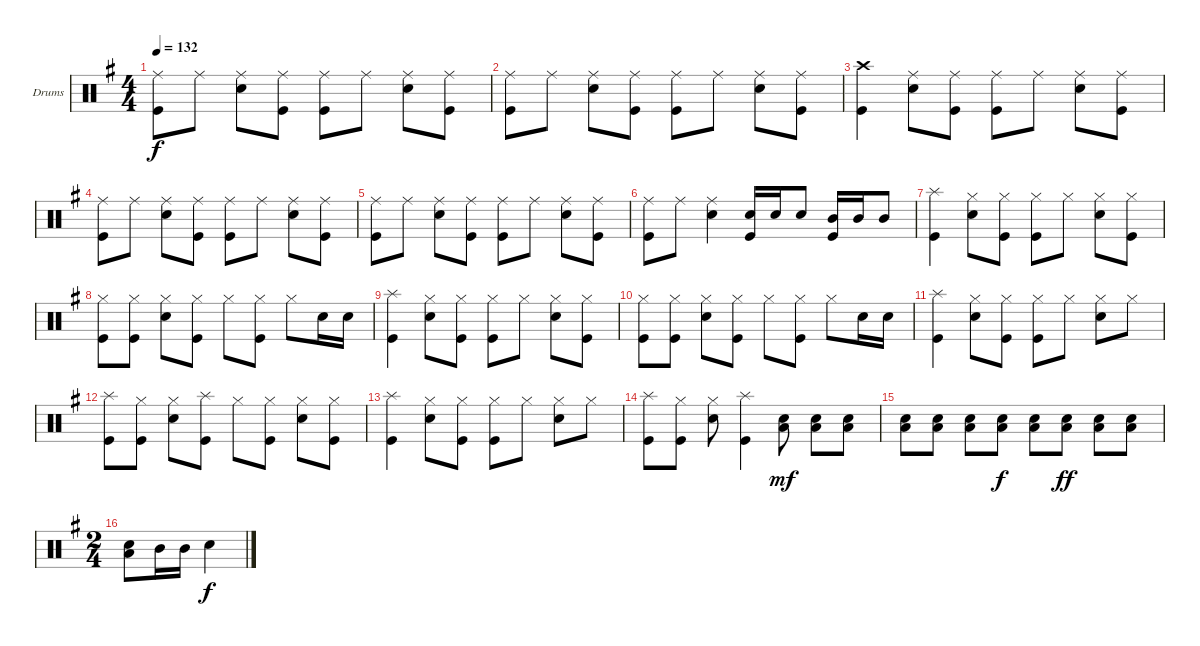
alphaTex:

\defaultSystemsLayout 4
\bracketExtendMode groupsimilarinstruments
\firstSystemTrackNameOrientation horizontal
\otherSystemsTrackNameOrientation horizontal
\track ("Drumkit" "Drums") {instrument percussion}
\staff {score}
\articulation defaults
\ts (4 4)
\tempo 132
\clef neutral
\scale
0.957125
\ks g
("Ride (middle)" "Kick (hit)").8{dy f} "Ride (middle)".8 ("Ride (middle)" "Snare (hit) 2").8 ("Ride (middle)" "Kick (hit)").8 ("Ride (middle)" "Kick (hit)").8 "Ride (middle)".8 ("Ride (middle)" "Snare (hit) 2").8 ("Ride (middle)" "Kick (hit)").8 |
\scale
0.957125 ("Ride (middle)" "Kick (hit)").8 "Ride (middle)".8 ("Ride (middle)" "Snare (hit) 2").8 ("Ride (middle)" "Kick (hit)").8 ("Ride (middle)" "Kick (hit)").8 "Ride (middle)".8 ("Ride (middle)" "Snare (hit) 2").8 ("Ride (middle)" "Kick (hit)").8 |
\scale
1.08575 ("Crash high (hit)" "Kick (hit)").4 ("Ride (middle)" "Snare (hit) 2").8 ("Ride (middle)" "Kick (hit)").8 ("Ride (middle)" "Kick (hit)").8 "Ride (middle)".8 ("Ride (middle)" "Snare (hit) 2").8 ("Ride (middle)" "Kick (hit)").8 |
\scale
0.957125 ("Ride (middle)" "Kick (hit)").8 "Ride (middle)".8 ("Ride (middle)" "Snare (hit) 2").8 ("Ride (middle)" "Kick (hit)").8 ("Ride (middle)" "Kick (hit)").8 "Ride (middle)".8 ("Ride (middle)" "Snare (hit) 2").8 ("Ride (middle)" "Kick (hit)").8 |
\scale
0.957125 ("Ride (middle)" "Kick (hit)").8 "Ride (middle)".8 ("Ride (middle)" "Snare (hit) 2").8 ("Ride (middle)" "Kick (hit)").8 ("Ride (middle)" "Kick (hit)").8 "Ride (middle)".8 ("Ride (middle)" "Snare (hit) 2").8 ("Ride (middle)" "Kick (hit)").8 |
\scale
1.08575 ("Ride (middle)" "Kick (hit)").8 "Ride (middle)".8 ("Ride (middle)" "Snare (hit) 2").4 ("Snare (hit) 2" "Kick (hit)").16 "Snare (hit) 2".16 "Snare (hit) 2".8 ("Mid Tom (hit)" "Kick (hit)").16 "Mid Tom (hit)".16 "Mid Tom (hit)".8 |
\scale
0.957125 ("Splash (hit)" "Kick (hit)").4 ("Hi-Hat (closed)" "Snare (hit) 2").8 ("Hi-Hat (closed)" "Kick (hit)").8 ("Hi-Hat (closed)" "Kick (hit)").8 "Hi-Hat (closed)".8 ("Hi-Hat (closed)" "Snare (hit) 2").8 ("Hi-Hat (closed)" "Kick (hit)").8 |
\scale
0.957125 ("Hi-Hat (closed)" "Kick (hit)").8 ("Hi-Hat (closed)" "Kick (hit)").8 ("Hi-Hat (closed)" "Snare (hit) 2").8 ("Hi-Hat (closed)" "Kick (hit)").8 "Hi-Hat (closed)".8 ("Hi-Hat (closed)" "Kick (hit)").8 "Hi-Hat (closed)".8 "Snare (hit) 2".16 "Snare (hit) 2".16 |
\scale
1.08575 ("Splash (hit)" "Kick (hit)").4 ("Hi-Hat (closed)" "Snare (hit) 2").8 ("Hi-Hat (closed)" "Kick (hit)").8 ("Hi-Hat (closed)" "Kick (hit)").8 "Hi-Hat (closed)".8 ("Hi-Hat (closed)" "Snare (hit) 2").8 ("Hi-Hat (closed)" "Kick (hit)").8 |
\scale
0.957125 ("Hi-Hat (closed)" "Kick (hit)").8 ("Hi-Hat (closed)" "Kick (hit)").8 ("Hi-Hat (closed)" "Snare (hit) 2").8 ("Hi-Hat (closed)" "Kick (hit)").8 "Hi-Hat (closed)".8 ("Hi-Hat (closed)" "Kick (hit)").8 "Hi-Hat (closed)".8 "Snare (hit) 2".16 "Snare (hit) 2".16 |
\scale
0.957125 ("Splash (hit)" "Kick (hit)").4 ("Hi-Hat (closed)" "Snare (hit) 2").8 ("Hi-Hat (closed)" "Kick (hit)").8 ("Hi-Hat (closed)" "Kick (hit)").8 "Hi-Hat (closed)".8 ("Hi-Hat (closed)" "Snare (hit) 2").8 "Hi-Hat (closed)".8 |
\scale
1.08575 ("Splash (hit)" "Kick (hit)").8 ("Hi-Hat (closed)" "Kick (hit)").8 ("Hi-Hat (closed)" "Snare (hit) 2").8 ("Splash (hit)" "Kick (hit)").8 "Hi-Hat (closed)".8 ("Hi-Hat (closed)" "Kick (hit)").8 ("Hi-Hat (closed)" "Snare (hit) 2").8 ("Hi-Hat (closed)" "Kick (hit)").8 |
\scale
0.957125 ("Splash (hit)" "Kick (hit)").4 ("Hi-Hat (closed)" "Snare (hit) 2").8 ("Hi-Hat (closed)" "Kick (hit)").8 ("Hi-Hat (closed)" "Kick (hit)").8 "Hi-Hat (closed)".8 ("Hi-Hat (closed)" "Snare (hit) 2").8 "Hi-Hat (closed)".8 |
\scale
0.957125 ("Splash (hit)" "Kick (hit)").8 ("Hi-Hat (closed)" "Kick (hit)").8 ("Hi-Hat (closed)" "Snare (hit) 2").8 ("Splash (hit)" "Kick (hit)").4 ("Snare (hit) 2" "Low Tom (hit)").8{dy mf} ("Snare (hit) 2" "Low Tom (hit)").8 ("Snare (hit) 2" "Low Tom (hit)").8 |
\scale
1.08575 ("Snare (hit) 2" "Low Tom (hit)").8 ("Snare (hit) 2" "Low Tom (hit)").8 ("Snare (hit) 2" "Low Tom (hit)").8 ("Snare (hit) 2" "Low Tom (hit)").8{dy f} ("Snare (hit) 2" "Low Tom (hit)").8 ("Snare (hit) 2" "Low Tom (hit)").8{dy ff} ("Snare (hit) 2" "Low Tom (hit)").8 ("Snare (hit) 2" "Low Tom (hit)").8 |
\ts (2 4)
\scale
0.957125 ("Snare (hit) 2" "Low Tom (hit)").8 "Mid Tom (hit)".16 "Mid Tom (hit)".16 "Snare (hit) 2".4{dy f}
